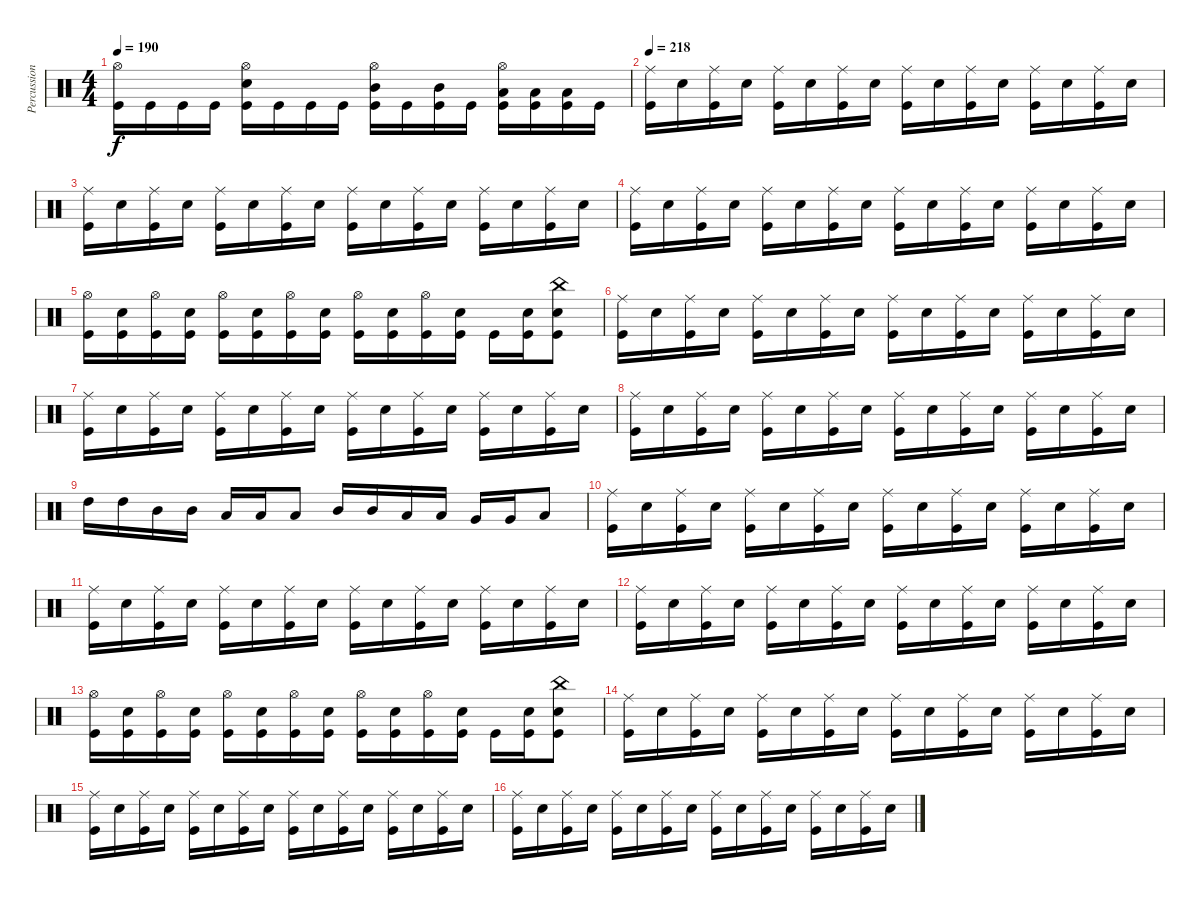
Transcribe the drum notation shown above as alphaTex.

\track ("Percussioni" "Percussion") {instrument percussion}
\staff {score}
\articulation defaults
\ts (4 4)
\tempo 190
\clef neutral
\ks c
("Hi-Hat (open)" "Kick (hit)").16{dy f} "Kick (hit)".16 "Kick (hit)".16 "Kick (hit)".16 ("Hi-Hat (open)" "Electric Snare (hit)" "Kick (hit)").16 "Kick (hit)".16 "Kick (hit)".16 "Kick (hit)".16 ("Hi-Hat (open)" "Mid Tom (hit)" "Kick (hit)").16 "Kick (hit)".16 ("Mid Tom (hit)" "Kick (hit)").16 "Kick (hit)".16 ("Hi-Hat (open)" "Low Tom (hit)" "Kick (hit)").16 ("Low Tom (hit)" "Kick (hit)").16 ("Low Tom (hit)" "Kick (hit)").16 "Kick (hit)".16 |
\tempo 218
("Ride (middle)" "Kick (hit)").16 "Electric Snare (hit)".16 ("Ride (middle)" "Kick (hit)").16 "Electric Snare (hit)".16 ("Ride (middle)" "Kick (hit)").16 "Electric Snare (hit)".16 ("Ride (middle)" "Kick (hit)").16 "Electric Snare (hit)".16 ("Ride (middle)" "Kick (hit)").16 "Electric Snare (hit)".16 ("Ride (middle)" "Kick (hit)").16 "Electric Snare (hit)".16 ("Ride (middle)" "Kick (hit)").16 "Electric Snare (hit)".16 ("Ride (middle)" "Kick (hit)").16 "Electric Snare (hit)".16 |
("Ride (middle)" "Kick (hit)").16 "Electric Snare (hit)".16 ("Ride (middle)" "Kick (hit)").16 "Electric Snare (hit)".16 ("Ride (middle)" "Kick (hit)").16 "Electric Snare (hit)".16 ("Ride (middle)" "Kick (hit)").16 "Electric Snare (hit)".16 ("Ride (middle)" "Kick (hit)").16 "Electric Snare (hit)".16 ("Ride (middle)" "Kick (hit)").16 "Electric Snare (hit)".16 ("Ride (middle)" "Kick (hit)").16 "Electric Snare (hit)".16 ("Ride (middle)" "Kick (hit)").16 "Electric Snare (hit)".16 |
("Ride (middle)" "Kick (hit)").16 "Electric Snare (hit)".16 ("Ride (middle)" "Kick (hit)").16 "Electric Snare (hit)".16 ("Ride (middle)" "Kick (hit)").16 "Electric Snare (hit)".16 ("Ride (middle)" "Kick (hit)").16 "Electric Snare (hit)".16 ("Ride (middle)" "Kick (hit)").16 "Electric Snare (hit)".16 ("Ride (middle)" "Kick (hit)").16 "Electric Snare (hit)".16 ("Ride (middle)" "Kick (hit)").16 "Electric Snare (hit)".16 ("Ride (middle)" "Kick (hit)").16 "Electric Snare (hit)".16 |
("Hi-Hat (open)" "Kick (hit)").16 ("Electric Snare (hit)" "Kick (hit)").16 ("Hi-Hat (open)" "Kick (hit)").16 ("Electric Snare (hit)" "Kick (hit)").16 ("Hi-Hat (open)" "Kick (hit)").16 ("Electric Snare (hit)" "Kick (hit)").16 ("Hi-Hat (open)" "Kick (hit)").16 ("Electric Snare (hit)" "Kick (hit)").16 ("Hi-Hat (open)" "Kick (hit)").16 ("Electric Snare (hit)" "Kick (hit)").16 ("Hi-Hat (open)" "Kick (hit)").16 ("Electric Snare (hit)" "Kick (hit)").16 "Kick (hit)".16 ("Electric Snare (hit)" "Kick (hit)").16 ("China (hit)" "Electric Snare (hit)" "Kick (hit)").8 |
("Ride (middle)" "Kick (hit)").16 "Electric Snare (hit)".16 ("Ride (middle)" "Kick (hit)").16 "Electric Snare (hit)".16 ("Ride (middle)" "Kick (hit)").16 "Electric Snare (hit)".16 ("Ride (middle)" "Kick (hit)").16 "Electric Snare (hit)".16 ("Ride (middle)" "Kick (hit)").16 "Electric Snare (hit)".16 ("Ride (middle)" "Kick (hit)").16 "Electric Snare (hit)".16 ("Ride (middle)" "Kick (hit)").16 "Electric Snare (hit)".16 ("Ride (middle)" "Kick (hit)").16 "Electric Snare (hit)".16 |
("Ride (middle)" "Kick (hit)").16 "Electric Snare (hit)".16 ("Ride (middle)" "Kick (hit)").16 "Electric Snare (hit)".16 ("Ride (middle)" "Kick (hit)").16 "Electric Snare (hit)".16 ("Ride (middle)" "Kick (hit)").16 "Electric Snare (hit)".16 ("Ride (middle)" "Kick (hit)").16 "Electric Snare (hit)".16 ("Ride (middle)" "Kick (hit)").16 "Electric Snare (hit)".16 ("Ride (middle)" "Kick (hit)").16 "Electric Snare (hit)".16 ("Ride (middle)" "Kick (hit)").16 "Electric Snare (hit)".16 |
("Ride (middle)" "Kick (hit)").16 "Electric Snare (hit)".16 ("Ride (middle)" "Kick (hit)").16 "Electric Snare (hit)".16 ("Ride (middle)" "Kick (hit)").16 "Electric Snare (hit)".16 ("Ride (middle)" "Kick (hit)").16 "Electric Snare (hit)".16 ("Ride (middle)" "Kick (hit)").16 "Electric Snare (hit)".16 ("Ride (middle)" "Kick (hit)").16 "Electric Snare (hit)".16 ("Ride (middle)" "Kick (hit)").16 "Electric Snare (hit)".16 ("Ride (middle)" "Kick (hit)").16 "Electric Snare (hit)".16 |
"High Tom (hit)".16 "High Tom (hit)".16 "Mid Tom (hit)".16 "Mid Tom (hit)".16 "Low Tom (hit)".16 "Low Tom (hit)".16 "Low Tom (hit)".8 "Mid Tom (hit)".16 "Mid Tom (hit)".16 "Low Tom (hit)".16 "Low Tom (hit)".16 "Very Low Tom (hit)".16 "Very Low Tom (hit)".16 "Low Floor Tom (hit)".8 |
("Ride (middle)" "Kick (hit)").16 "Electric Snare (hit)".16 ("Ride (middle)" "Kick (hit)").16 "Electric Snare (hit)".16 ("Ride (middle)" "Kick (hit)").16 "Electric Snare (hit)".16 ("Ride (middle)" "Kick (hit)").16 "Electric Snare (hit)".16 ("Ride (middle)" "Kick (hit)").16 "Electric Snare (hit)".16 ("Ride (middle)" "Kick (hit)").16 "Electric Snare (hit)".16 ("Ride (middle)" "Kick (hit)").16 "Electric Snare (hit)".16 ("Ride (middle)" "Kick (hit)").16 "Electric Snare (hit)".16 |
("Ride (middle)" "Kick (hit)").16 "Electric Snare (hit)".16 ("Ride (middle)" "Kick (hit)").16 "Electric Snare (hit)".16 ("Ride (middle)" "Kick (hit)").16 "Electric Snare (hit)".16 ("Ride (middle)" "Kick (hit)").16 "Electric Snare (hit)".16 ("Ride (middle)" "Kick (hit)").16 "Electric Snare (hit)".16 ("Ride (middle)" "Kick (hit)").16 "Electric Snare (hit)".16 ("Ride (middle)" "Kick (hit)").16 "Electric Snare (hit)".16 ("Ride (middle)" "Kick (hit)").16 "Electric Snare (hit)".16 |
("Ride (middle)" "Kick (hit)").16 "Electric Snare (hit)".16 ("Ride (middle)" "Kick (hit)").16 "Electric Snare (hit)".16 ("Ride (middle)" "Kick (hit)").16 "Electric Snare (hit)".16 ("Ride (middle)" "Kick (hit)").16 "Electric Snare (hit)".16 ("Ride (middle)" "Kick (hit)").16 "Electric Snare (hit)".16 ("Ride (middle)" "Kick (hit)").16 "Electric Snare (hit)".16 ("Ride (middle)" "Kick (hit)").16 "Electric Snare (hit)".16 ("Ride (middle)" "Kick (hit)").16 "Electric Snare (hit)".16 |
("Hi-Hat (open)" "Kick (hit)").16 ("Electric Snare (hit)" "Kick (hit)").16 ("Hi-Hat (open)" "Kick (hit)").16 ("Electric Snare (hit)" "Kick (hit)").16 ("Hi-Hat (open)" "Kick (hit)").16 ("Electric Snare (hit)" "Kick (hit)").16 ("Hi-Hat (open)" "Kick (hit)").16 ("Electric Snare (hit)" "Kick (hit)").16 ("Hi-Hat (open)" "Kick (hit)").16 ("Electric Snare (hit)" "Kick (hit)").16 ("Hi-Hat (open)" "Kick (hit)").16 ("Electric Snare (hit)" "Kick (hit)").16 "Kick (hit)".16 ("Electric Snare (hit)" "Kick (hit)").16 ("China (hit)" "Electric Snare (hit)" "Kick (hit)").8 |
("Ride (middle)" "Kick (hit)").16 "Electric Snare (hit)".16 ("Ride (middle)" "Kick (hit)").16 "Electric Snare (hit)".16 ("Ride (middle)" "Kick (hit)").16 "Electric Snare (hit)".16 ("Ride (middle)" "Kick (hit)").16 "Electric Snare (hit)".16 ("Ride (middle)" "Kick (hit)").16 "Electric Snare (hit)".16 ("Ride (middle)" "Kick (hit)").16 "Electric Snare (hit)".16 ("Ride (middle)" "Kick (hit)").16 "Electric Snare (hit)".16 ("Ride (middle)" "Kick (hit)").16 "Electric Snare (hit)".16 |
("Ride (middle)" "Kick (hit)").16 "Electric Snare (hit)".16 ("Ride (middle)" "Kick (hit)").16 "Electric Snare (hit)".16 ("Ride (middle)" "Kick (hit)").16 "Electric Snare (hit)".16 ("Ride (middle)" "Kick (hit)").16 "Electric Snare (hit)".16 ("Ride (middle)" "Kick (hit)").16 "Electric Snare (hit)".16 ("Ride (middle)" "Kick (hit)").16 "Electric Snare (hit)".16 ("Ride (middle)" "Kick (hit)").16 "Electric Snare (hit)".16 ("Ride (middle)" "Kick (hit)").16 "Electric Snare (hit)".16 |
("Ride (middle)" "Kick (hit)").16 "Electric Snare (hit)".16 ("Ride (middle)" "Kick (hit)").16 "Electric Snare (hit)".16 ("Ride (middle)" "Kick (hit)").16 "Electric Snare (hit)".16 ("Ride (middle)" "Kick (hit)").16 "Electric Snare (hit)".16 ("Ride (middle)" "Kick (hit)").16 "Electric Snare (hit)".16 ("Ride (middle)" "Kick (hit)").16 "Electric Snare (hit)".16 ("Ride (middle)" "Kick (hit)").16 "Electric Snare (hit)".16 ("Ride (middle)" "Kick (hit)").16 "Electric Snare (hit)".16
